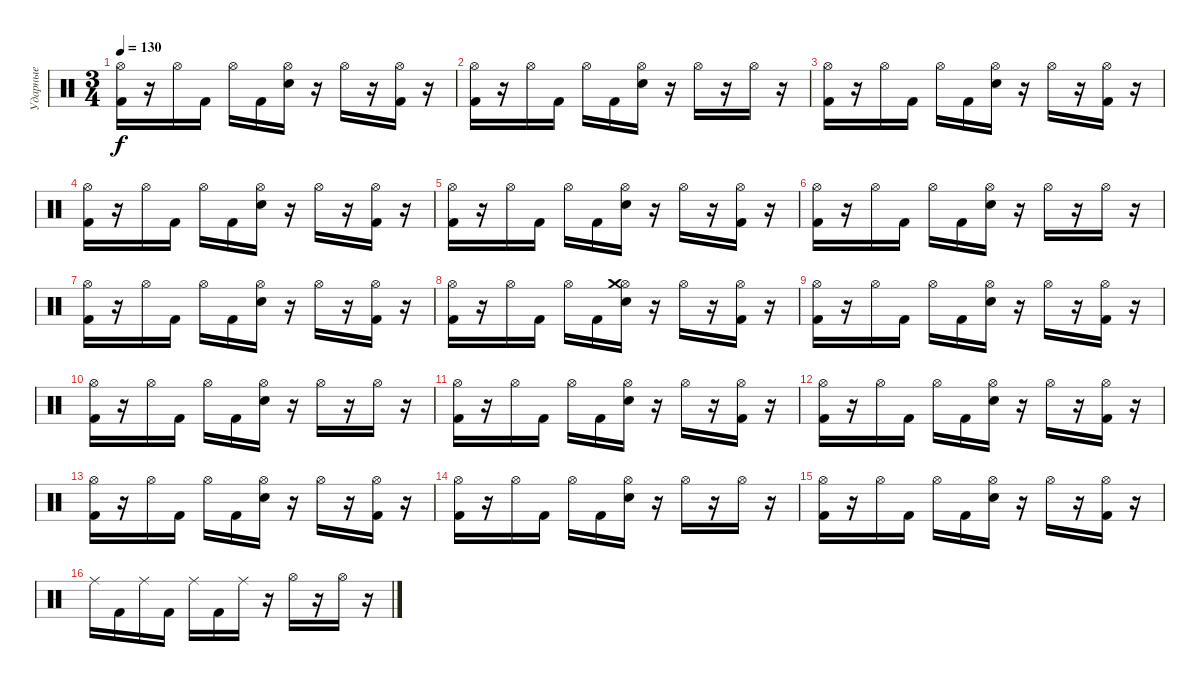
\track ("Ударные" "Ударные") {instrument percussion}
\staff {score}
\articulation defaults
\ts (3 4)
\tempo 130
\clef neutral
\ks c
("Hi-Hat (open)" "Kick (hit) 2").16{dy f} r.16 "Hi-Hat (open)".16 "Kick (hit) 2".16 "Hi-Hat (open)".16 "Kick (hit) 2".16 ("Snare (hit) 2" "Hi-Hat (open)").16 r.16 "Hi-Hat (open)".16 r.16 ("Hi-Hat (open)" "Kick (hit) 2").16 r.16 |
("Hi-Hat (open)" "Kick (hit) 2").16 r.16 "Hi-Hat (open)".16 "Kick (hit) 2".16 "Hi-Hat (open)".16 "Kick (hit) 2".16 ("Snare (hit) 2" "Hi-Hat (open)").16 r.16 "Hi-Hat (open)".16 r.16 "Hi-Hat (open)".16 r.16 |
("Hi-Hat (open)" "Kick (hit) 2").16 r.16 "Hi-Hat (open)".16 "Kick (hit) 2".16 "Hi-Hat (open)".16 "Kick (hit) 2".16 ("Snare (hit) 2" "Hi-Hat (open)").16 r.16 "Hi-Hat (open)".16 r.16 ("Hi-Hat (open)" "Kick (hit) 2").16 r.16 |
("Hi-Hat (open)" "Kick (hit) 2").16 r.16 "Hi-Hat (open)".16 "Kick (hit) 2".16 "Hi-Hat (open)".16 "Kick (hit) 2".16 ("Snare (hit) 2" "Hi-Hat (open)").16 r.16 "Hi-Hat (open)".16 r.16 ("Hi-Hat (open)" "Kick (hit) 2").16 r.16 |
("Hi-Hat (open)" "Kick (hit) 2").16 r.16 "Hi-Hat (open)".16 "Kick (hit) 2".16 "Hi-Hat (open)".16 "Kick (hit) 2".16 ("Snare (hit) 2" "Hi-Hat (open)").16 r.16 "Hi-Hat (open)".16 r.16 ("Hi-Hat (open)" "Kick (hit) 2").16 r.16 |
("Hi-Hat (open)" "Kick (hit) 2").16 r.16 "Hi-Hat (open)".16 "Kick (hit) 2".16 "Hi-Hat (open)".16 "Kick (hit) 2".16 ("Snare (hit) 2" "Hi-Hat (open)").16 r.16 "Hi-Hat (open)".16 r.16 "Hi-Hat (open)".16 r.16 |
("Hi-Hat (open)" "Kick (hit) 2").16 r.16 "Hi-Hat (open)".16 "Kick (hit) 2".16 "Hi-Hat (open)".16 "Kick (hit) 2".16 ("Snare (hit) 2" "Hi-Hat (open)").16 r.16 "Hi-Hat (open)".16 r.16 ("Hi-Hat (open)" "Kick (hit) 2").16 r.16 |
("Hi-Hat (open)" "Kick (hit) 2").16 r.16 "Hi-Hat (open)".16 "Kick (hit) 2".16 "Hi-Hat (open)".16 "Kick (hit) 2".16 ("Snare (hit) 2" "Hi-Hat (open)" "Crash medium (hit)").16 r.16 "Hi-Hat (open)".16 r.16 ("Hi-Hat (open)" "Kick (hit) 2").16 r.16 |
("Hi-Hat (open)" "Kick (hit) 2").16 r.16 "Hi-Hat (open)".16 "Kick (hit) 2".16 "Hi-Hat (open)".16 "Kick (hit) 2".16 ("Snare (hit) 2" "Hi-Hat (open)").16 r.16 "Hi-Hat (open)".16 r.16 ("Hi-Hat (open)" "Kick (hit) 2").16 r.16 |
("Hi-Hat (open)" "Kick (hit) 2").16 r.16 "Hi-Hat (open)".16 "Kick (hit) 2".16 "Hi-Hat (open)".16 "Kick (hit) 2".16 ("Snare (hit) 2" "Hi-Hat (open)").16 r.16 "Hi-Hat (open)".16 r.16 "Hi-Hat (open)".16 r.16 |
("Hi-Hat (open)" "Kick (hit) 2").16 r.16 "Hi-Hat (open)".16 "Kick (hit) 2".16 "Hi-Hat (open)".16 "Kick (hit) 2".16 ("Snare (hit) 2" "Hi-Hat (open)").16 r.16 "Hi-Hat (open)".16 r.16 ("Hi-Hat (open)" "Kick (hit) 2").16 r.16 |
("Hi-Hat (open)" "Kick (hit) 2").16 r.16 "Hi-Hat (open)".16 "Kick (hit) 2".16 "Hi-Hat (open)".16 "Kick (hit) 2".16 ("Snare (hit) 2" "Hi-Hat (open)").16 r.16 "Hi-Hat (open)".16 r.16 ("Hi-Hat (open)" "Kick (hit) 2").16 r.16 |
("Hi-Hat (open)" "Kick (hit) 2").16 r.16 "Hi-Hat (open)".16 "Kick (hit) 2".16 "Hi-Hat (open)".16 "Kick (hit) 2".16 ("Snare (hit) 2" "Hi-Hat (open)").16 r.16 "Hi-Hat (open)".16 r.16 ("Hi-Hat (open)" "Kick (hit) 2").16 r.16 |
("Hi-Hat (open)" "Kick (hit) 2").16 r.16 "Hi-Hat (open)".16 "Kick (hit) 2".16 "Hi-Hat (open)".16 "Kick (hit) 2".16 ("Snare (hit) 2" "Hi-Hat (open)").16 r.16 "Hi-Hat (open)".16 r.16 "Hi-Hat (open)".16 r.16 |
("Hi-Hat (open)" "Kick (hit) 2").16 r.16 "Hi-Hat (open)".16 "Kick (hit) 2".16 "Hi-Hat (open)".16 "Kick (hit) 2".16 ("Snare (hit) 2" "Hi-Hat (open)").16 r.16 "Hi-Hat (open)".16 r.16 ("Hi-Hat (open)" "Kick (hit) 2").16 r.16 |
"Ride (middle)".16 "Kick (hit) 2".16 "Ride (middle)".16 "Kick (hit) 2".16 "Ride (middle)".16 "Kick (hit) 2".16 "Ride (middle)".16 r.16 "Hi-Hat (open)".16 r.16 "Hi-Hat (open)".16 r.16
